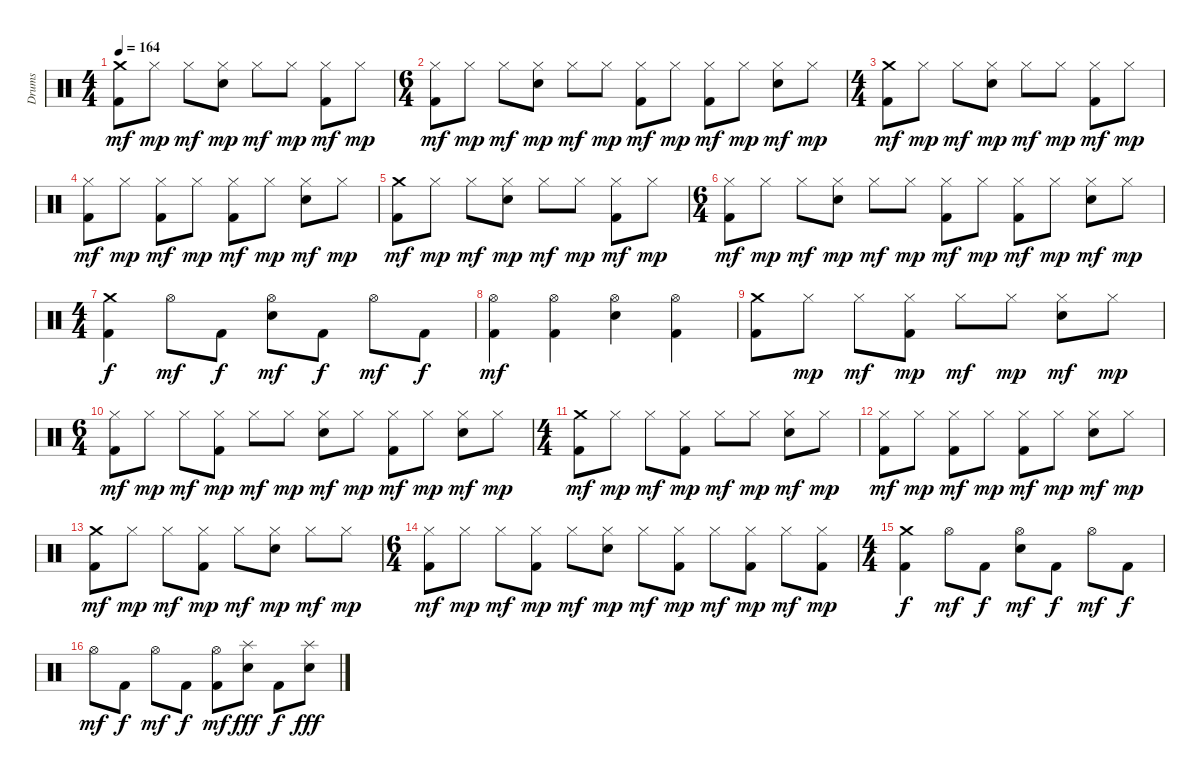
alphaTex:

\track ("Drums" "Drums") {instrument percussion}
\staff {score}
\articulation defaults
\ts (4 4)
\tempo 164
\clef neutral
\ks c
("Crash medium (hit)" "Kick (hit) 2").8{dy mf} "Hi-Hat (closed)".8{dy mp} "Hi-Hat (closed)".8{dy mf} ("Electric Snare (hit)" "Hi-Hat (closed)").8{dy mp} "Hi-Hat (closed)".8{dy mf} "Hi-Hat (closed)".8{dy mp} ("Hi-Hat (closed)" "Kick (hit) 2").8{dy mf} "Hi-Hat (closed)".8{dy mp} |
\ts (6 4)
("Hi-Hat (closed)" "Kick (hit) 2").8{dy mf} "Hi-Hat (closed)".8{dy mp} "Hi-Hat (closed)".8{dy mf} ("Electric Snare (hit)" "Hi-Hat (closed)").8{dy mp} "Hi-Hat (closed)".8{dy mf} "Hi-Hat (closed)".8{dy mp} ("Hi-Hat (closed)" "Kick (hit) 2").8{dy mf} "Hi-Hat (closed)".8{dy mp} ("Hi-Hat (closed)" "Kick (hit) 2").8{dy mf} "Hi-Hat (closed)".8{dy mp} ("Hi-Hat (closed)" "Electric Snare (hit)").8{dy mf} "Hi-Hat (closed)".8{dy mp} |
\ts (4 4)
("Crash medium (hit)" "Kick (hit) 2").8{dy mf} "Hi-Hat (closed)".8{dy mp} "Hi-Hat (closed)".8{dy mf} ("Electric Snare (hit)" "Hi-Hat (closed)").8{dy mp} "Hi-Hat (closed)".8{dy mf} "Hi-Hat (closed)".8{dy mp} ("Hi-Hat (closed)" "Kick (hit) 2").8{dy mf} "Hi-Hat (closed)".8{dy mp} |
("Hi-Hat (closed)" "Kick (hit) 2").8{dy mf} "Hi-Hat (closed)".8{dy mp} ("Hi-Hat (closed)" "Kick (hit) 2").8{dy mf} "Hi-Hat (closed)".8{dy mp} ("Hi-Hat (closed)" "Kick (hit) 2").8{dy mf} "Hi-Hat (closed)".8{dy mp} ("Hi-Hat (closed)" "Electric Snare (hit)").8{dy mf} "Hi-Hat (closed)".8{dy mp} |
("Crash medium (hit)" "Kick (hit) 2").8{dy mf} "Hi-Hat (closed)".8{dy mp} "Hi-Hat (closed)".8{dy mf} ("Electric Snare (hit)" "Hi-Hat (closed)").8{dy mp} "Hi-Hat (closed)".8{dy mf} "Hi-Hat (closed)".8{dy mp} ("Hi-Hat (closed)" "Kick (hit) 2").8{dy mf} "Hi-Hat (closed)".8{dy mp} |
\ts (6 4)
("Hi-Hat (closed)" "Kick (hit) 2").8{dy mf} "Hi-Hat (closed)".8{dy mp} "Hi-Hat (closed)".8{dy mf} ("Electric Snare (hit)" "Hi-Hat (closed)").8{dy mp} "Hi-Hat (closed)".8{dy mf} "Hi-Hat (closed)".8{dy mp} ("Hi-Hat (closed)" "Kick (hit) 2").8{dy mf} "Hi-Hat (closed)".8{dy mp} ("Hi-Hat (closed)" "Kick (hit) 2").8{dy mf} "Hi-Hat (closed)".8{dy mp} ("Hi-Hat (closed)" "Electric Snare (hit)").8{dy mf} "Hi-Hat (closed)".8{dy mp} |
\ts (4 4)
("Crash medium (hit)" "Kick (hit) 2").4{dy f} "Hi-Hat (open)".8{dy mf} "Kick (hit) 2".8{dy f} ("Hi-Hat (open)" "Electric Snare (hit)").8{dy mf} "Kick (hit) 2".8{dy f} "Hi-Hat (open)".8{dy mf} "Kick (hit) 2".8{dy f} |
("Hi-Hat (open)" "Kick (hit) 2").4{dy mf} ("Hi-Hat (open)" "Kick (hit) 2").4 ("Hi-Hat (open)" "Electric Snare (hit)").4 ("Hi-Hat (open)" "Kick (hit) 2").4 |
("Crash medium (hit)" "Kick (hit) 2").8 "Hi-Hat (closed)".8{dy mp} "Hi-Hat (closed)".8{dy mf} ("Hi-Hat (closed)" "Kick (hit) 2").8{dy mp} "Hi-Hat (closed)".8{dy mf} "Hi-Hat (closed)".8{dy mp} ("Hi-Hat (closed)" "Electric Snare (hit)").8{dy mf} "Hi-Hat (closed)".8{dy mp} |
\ts (6 4)
("Hi-Hat (closed)" "Kick (hit) 2").8{dy mf} "Hi-Hat (closed)".8{dy mp} "Hi-Hat (closed)".8{dy mf} ("Kick (hit) 2" "Hi-Hat (closed)").8{dy mp} "Hi-Hat (closed)".8{dy mf} "Hi-Hat (closed)".8{dy mp} ("Hi-Hat (closed)" "Electric Snare (hit)").8{dy mf} "Hi-Hat (closed)".8{dy mp} ("Hi-Hat (closed)" "Kick (hit) 2").8{dy mf} "Hi-Hat (closed)".8{dy mp} ("Hi-Hat (closed)" "Electric Snare (hit)").8{dy mf} "Hi-Hat (closed)".8{dy mp} |
\ts (4 4)
("Crash medium (hit)" "Kick (hit) 2").8{dy mf} "Hi-Hat (closed)".8{dy mp} "Hi-Hat (closed)".8{dy mf} ("Kick (hit) 2" "Hi-Hat (closed)").8{dy mp} "Hi-Hat (closed)".8{dy mf} "Hi-Hat (closed)".8{dy mp} ("Hi-Hat (closed)" "Electric Snare (hit)").8{dy mf} "Hi-Hat (closed)".8{dy mp} |
("Hi-Hat (closed)" "Kick (hit) 2").8{dy mf} "Hi-Hat (closed)".8{dy mp} ("Hi-Hat (closed)" "Kick (hit) 2").8{dy mf} "Hi-Hat (closed)".8{dy mp} ("Hi-Hat (closed)" "Kick (hit) 2").8{dy mf} "Hi-Hat (closed)".8{dy mp} ("Hi-Hat (closed)" "Electric Snare (hit)").8{dy mf} "Hi-Hat (closed)".8{dy mp} |
("Crash medium (hit)" "Kick (hit) 2").8{dy mf} "Hi-Hat (closed)".8{dy mp} "Hi-Hat (closed)".8{dy mf} ("Hi-Hat (closed)" "Kick (hit) 2").8{dy mp} "Hi-Hat (closed)".8{dy mf} ("Hi-Hat (closed)" "Electric Snare (hit)").8{dy mp} "Hi-Hat (closed)".8{dy mf} "Hi-Hat (closed)".8{dy mp} |
\ts (6 4)
("Hi-Hat (closed)" "Kick (hit) 2").8{dy mf} "Hi-Hat (closed)".8{dy mp} "Hi-Hat (closed)".8{dy mf} ("Hi-Hat (closed)" "Kick (hit) 2").8{dy mp} "Hi-Hat (closed)".8{dy mf} ("Hi-Hat (closed)" "Electric Snare (hit)").8{dy mp} "Hi-Hat (closed)".8{dy mf} ("Hi-Hat (closed)" "Kick (hit) 2").8{dy mp} "Hi-Hat (closed)".8{dy mf} ("Hi-Hat (closed)" "Kick (hit) 2").8{dy mp} "Hi-Hat (closed)".8{dy mf} ("Hi-Hat (closed)" "Kick (hit) 2").8{dy mp} |
\ts (4 4)
("Crash medium (hit)" "Kick (hit) 2").4{dy f} "Hi-Hat (open)".8{dy mf} "Kick (hit) 2".8{dy f} ("Hi-Hat (open)" "Electric Snare (hit)").8{dy mf} "Kick (hit) 2".8{dy f} "Hi-Hat (open)".8{dy mf} "Kick (hit) 2".8{dy f} |
"Hi-Hat (open)".8{dy mf} "Kick (hit) 2".8{dy f} "Hi-Hat (open)".8{dy mf} "Kick (hit) 2".8{dy f} ("Hi-Hat (open)" "Kick (hit) 2").8{dy mf} ("Splash (hit)" "Electric Snare (hit)").8{dy fff} "Kick (hit) 2".8{dy f} ("Splash (hit)" "Electric Snare (hit)").8{dy fff}
